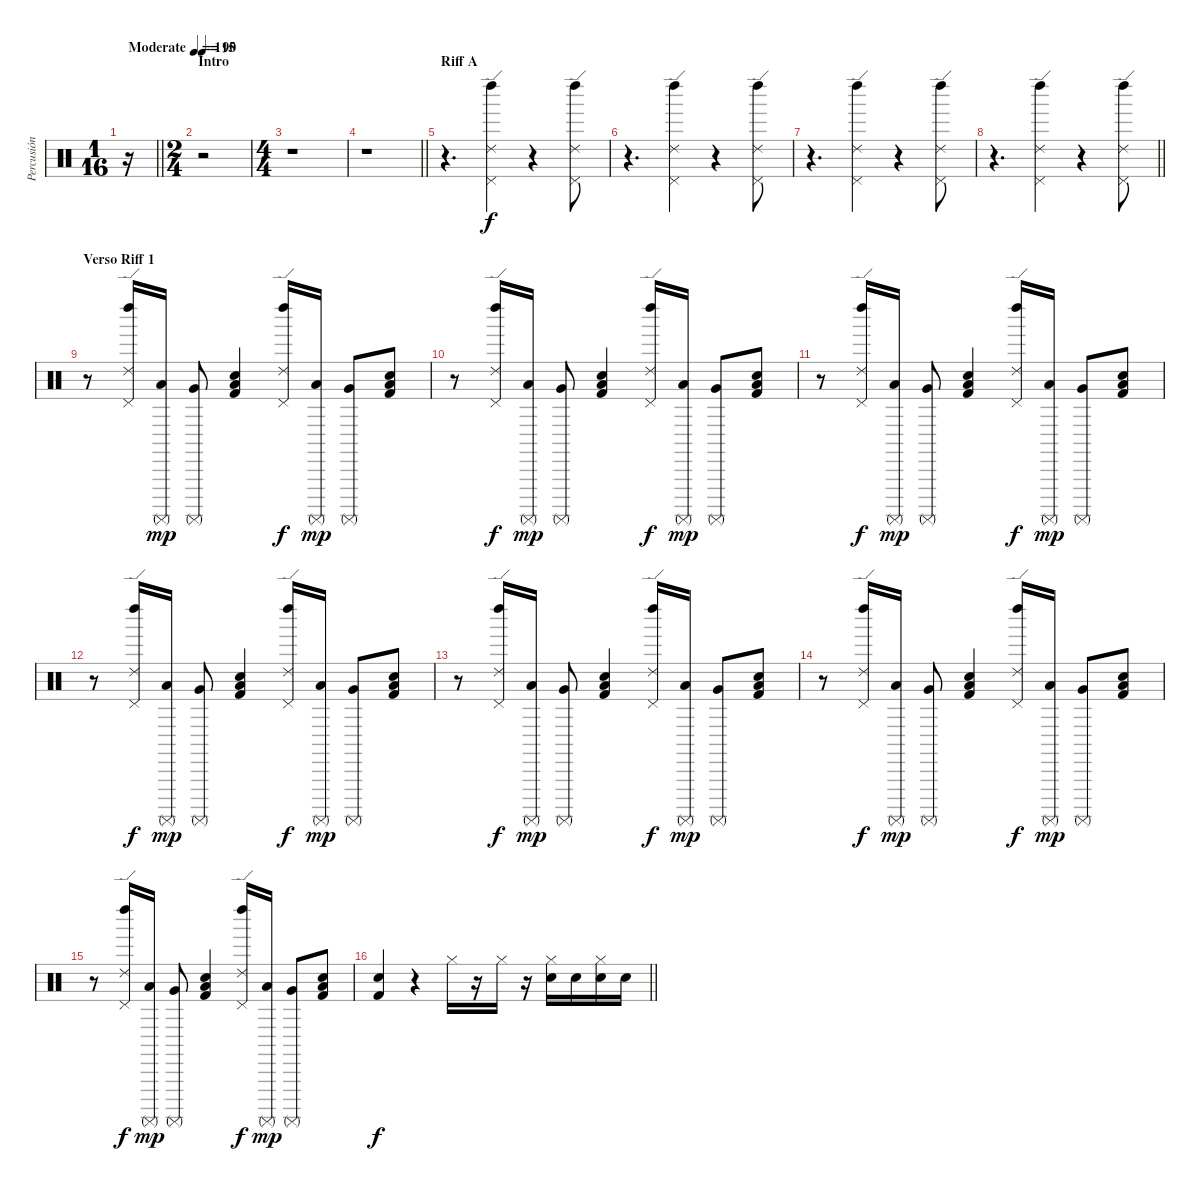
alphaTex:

\track ("Percusión" "Percusión") {instrument percussion}
\staff {score}
\articulation defaults
\ts (1 16)
\tempo (115 "Moderate")
\clef neutral
\barLineRight lightlight
\ks c
r.16{dy f} |
\ts (2 4)
\section ("" "Intro")
\tempo 90
r.2{volume 5} |
\ts (4 4)
r.1 |
\barLineRight lightlight
r.1 |
\section ("" "Riff A")
r.4{d volume 14} ("Pedal Hi-Hat (hit)" "Ride (edge) 2" "Left Maraca (hit)").4 r.4 ("Pedal Hi-Hat (hit)" "Ride (edge) 2" "Left Maraca (hit)").8 |
r.4{d} ("Pedal Hi-Hat (hit)" "Ride (edge) 2" "Left Maraca (hit)").4 r.4 ("Pedal Hi-Hat (hit)" "Ride (edge) 2" "Left Maraca (hit)").8 |
r.4{d} ("Pedal Hi-Hat (hit)" "Ride (edge) 2" "Left Maraca (hit)").4 r.4 ("Pedal Hi-Hat (hit)" "Ride (edge) 2" "Left Maraca (hit)").8 |
\barLineRight lightlight
r.4{d volume 14} ("Pedal Hi-Hat (hit)" "Ride (edge) 2" "Left Maraca (hit)").4 r.4 ("Pedal Hi-Hat (hit)" "Ride (edge) 2" "Left Maraca (hit)").8 |
\section ("" "Verso Riff 1")
r.8 ("Pedal Hi-Hat (hit)" "Ride (edge) 2" "Left Maraca (hit)").16 ("Low Tom (hit)" "Surdo (mute)").16{dy mp} ("Very Low Tom (hit)" "Surdo (mute)").8 ("Snare (hit) 2" "Low Floor Tom (hit)" "Kick (hit) 2").4 ("Pedal Hi-Hat (hit)" "Ride (edge) 2" "Left Maraca (hit)").16{dy f} ("Low Tom (hit)" "Surdo (mute)").16{dy mp} ("Very Low Tom (hit)" "Surdo (mute)").8 ("Snare (hit) 2" "Low Floor Tom (hit)" "Kick (hit) 2").8 |
r.8 ("Pedal Hi-Hat (hit)" "Ride (edge) 2" "Left Maraca (hit)").16{dy f} ("Low Tom (hit)" "Surdo (mute)").16{dy mp} ("Very Low Tom (hit)" "Surdo (mute)").8 ("Snare (hit) 2" "Low Floor Tom (hit)" "Kick (hit) 2").4 ("Pedal Hi-Hat (hit)" "Ride (edge) 2" "Left Maraca (hit)").16{dy f} ("Low Tom (hit)" "Surdo (mute)").16{dy mp} ("Very Low Tom (hit)" "Surdo (mute)").8 ("Snare (hit) 2" "Low Floor Tom (hit)" "Kick (hit) 2").8 |
r.8 ("Pedal Hi-Hat (hit)" "Ride (edge) 2" "Left Maraca (hit)").16{dy f} ("Low Tom (hit)" "Surdo (mute)").16{dy mp} ("Very Low Tom (hit)" "Surdo (mute)").8 ("Snare (hit) 2" "Low Floor Tom (hit)" "Kick (hit) 2").4 ("Pedal Hi-Hat (hit)" "Ride (edge) 2" "Left Maraca (hit)").16{dy f} ("Low Tom (hit)" "Surdo (mute)").16{dy mp} ("Very Low Tom (hit)" "Surdo (mute)").8 ("Snare (hit) 2" "Low Floor Tom (hit)" "Kick (hit) 2").8 |
r.8 ("Pedal Hi-Hat (hit)" "Ride (edge) 2" "Left Maraca (hit)").16{dy f} ("Low Tom (hit)" "Surdo (mute)").16{dy mp} ("Very Low Tom (hit)" "Surdo (mute)").8 ("Snare (hit) 2" "Low Floor Tom (hit)" "Kick (hit) 2").4 ("Pedal Hi-Hat (hit)" "Ride (edge) 2" "Left Maraca (hit)").16{dy f} ("Low Tom (hit)" "Surdo (mute)").16{dy mp} ("Very Low Tom (hit)" "Surdo (mute)").8 ("Snare (hit) 2" "Low Floor Tom (hit)" "Kick (hit) 2").8 |
r.8 ("Pedal Hi-Hat (hit)" "Ride (edge) 2" "Left Maraca (hit)").16{dy f} ("Low Tom (hit)" "Surdo (mute)").16{dy mp} ("Very Low Tom (hit)" "Surdo (mute)").8 ("Snare (hit) 2" "Low Floor Tom (hit)" "Kick (hit) 2").4 ("Pedal Hi-Hat (hit)" "Ride (edge) 2" "Left Maraca (hit)").16{dy f} ("Low Tom (hit)" "Surdo (mute)").16{dy mp} ("Very Low Tom (hit)" "Surdo (mute)").8 ("Snare (hit) 2" "Low Floor Tom (hit)" "Kick (hit) 2").8 |
r.8 ("Pedal Hi-Hat (hit)" "Ride (edge) 2" "Left Maraca (hit)").16{dy f} ("Low Tom (hit)" "Surdo (mute)").16{dy mp} ("Very Low Tom (hit)" "Surdo (mute)").8 ("Snare (hit) 2" "Low Floor Tom (hit)" "Kick (hit) 2").4 ("Pedal Hi-Hat (hit)" "Ride (edge) 2" "Left Maraca (hit)").16{dy f} ("Low Tom (hit)" "Surdo (mute)").16{dy mp} ("Very Low Tom (hit)" "Surdo (mute)").8 ("Snare (hit) 2" "Low Floor Tom (hit)" "Kick (hit) 2").8 |
r.8 ("Pedal Hi-Hat (hit)" "Ride (edge) 2" "Left Maraca (hit)").16{dy f} ("Low Tom (hit)" "Surdo (mute)").16{dy mp} ("Very Low Tom (hit)" "Surdo (mute)").8 ("Snare (hit) 2" "Low Floor Tom (hit)" "Kick (hit) 2").4 ("Pedal Hi-Hat (hit)" "Ride (edge) 2" "Left Maraca (hit)").16{dy f} ("Low Tom (hit)" "Surdo (mute)").16{dy mp} ("Very Low Tom (hit)" "Surdo (mute)").8 ("Snare (hit) 2" "Low Floor Tom (hit)" "Kick (hit) 2").8 |
\barLineRight lightlight
("Snare (hit) 2" "Kick (hit) 2").4{dy f} r.4 "Hi-Hat (closed)".16 r.16 "Hi-Hat (closed)".16 r.16 ("Hi-Hat (closed)" "Snare (hit) 2").16 "Snare (hit) 2".16 ("Hi-Hat (closed)" "Snare (hit) 2").16 "Snare (hit) 2".16
